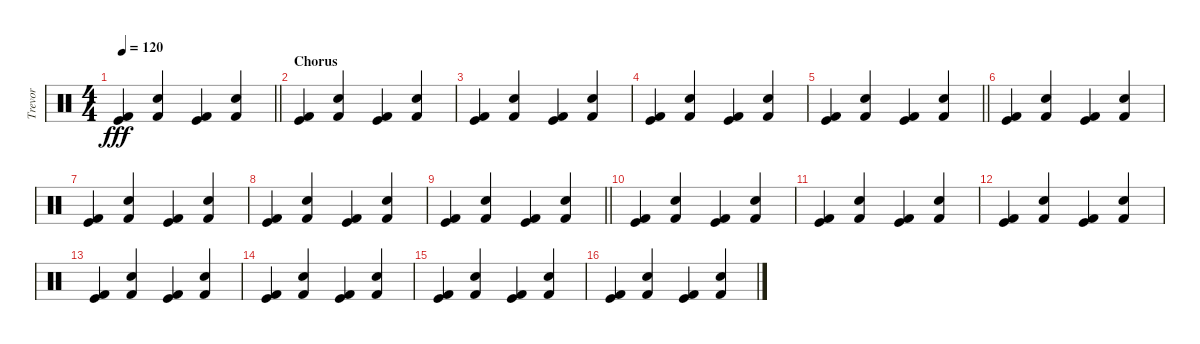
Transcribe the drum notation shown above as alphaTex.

\track ("Trevor" "Trevor") {instrument percussion}
\staff {score}
\articulation defaults
\ts (4 4)
\tempo 120
\clef neutral
\barLineRight lightlight
\ks c
("Kick (hit)" "Kick (hit) 2").4{dy fff} ("Kick (hit) 2" "Snare (hit) 2").4 ("Kick (hit)" "Kick (hit) 2").4 ("Kick (hit) 2" "Snare (hit) 2").4 |
\section ("" "Chorus")
("Kick (hit)" "Kick (hit) 2").4 ("Kick (hit) 2" "Snare (hit) 2").4 ("Kick (hit)" "Kick (hit) 2").4 ("Kick (hit) 2" "Snare (hit) 2").4 |
("Kick (hit)" "Kick (hit) 2").4 ("Kick (hit) 2" "Snare (hit) 2").4 ("Kick (hit)" "Kick (hit) 2").4 ("Kick (hit) 2" "Snare (hit) 2").4 |
("Kick (hit)" "Kick (hit) 2").4 ("Kick (hit) 2" "Snare (hit) 2").4 ("Kick (hit)" "Kick (hit) 2").4 ("Kick (hit) 2" "Snare (hit) 2").4 |
\barLineRight lightlight
("Kick (hit)" "Kick (hit) 2").4 ("Kick (hit) 2" "Snare (hit) 2").4 ("Kick (hit)" "Kick (hit) 2").4 ("Kick (hit) 2" "Snare (hit) 2").4 |
\section ("" "")
("Kick (hit)" "Kick (hit) 2").4 ("Kick (hit) 2" "Snare (hit) 2").4 ("Kick (hit)" "Kick (hit) 2").4 ("Kick (hit) 2" "Snare (hit) 2").4 |
("Kick (hit)" "Kick (hit) 2").4 ("Kick (hit) 2" "Snare (hit) 2").4 ("Kick (hit)" "Kick (hit) 2").4 ("Kick (hit) 2" "Snare (hit) 2").4 |
("Kick (hit)" "Kick (hit) 2").4 ("Kick (hit) 2" "Snare (hit) 2").4 ("Kick (hit)" "Kick (hit) 2").4 ("Kick (hit) 2" "Snare (hit) 2").4 |
\barLineRight lightlight
("Kick (hit)" "Kick (hit) 2").4 ("Kick (hit) 2" "Snare (hit) 2").4 ("Kick (hit)" "Kick (hit) 2").4 ("Kick (hit) 2" "Snare (hit) 2").4 |
\section ("" "")
("Kick (hit)" "Kick (hit) 2").4 ("Kick (hit) 2" "Snare (hit) 2").4 ("Kick (hit)" "Kick (hit) 2").4 ("Kick (hit) 2" "Snare (hit) 2").4 |
("Kick (hit)" "Kick (hit) 2").4 ("Kick (hit) 2" "Snare (hit) 2").4 ("Kick (hit)" "Kick (hit) 2").4 ("Kick (hit) 2" "Snare (hit) 2").4 |
("Kick (hit)" "Kick (hit) 2").4 ("Kick (hit) 2" "Snare (hit) 2").4 ("Kick (hit)" "Kick (hit) 2").4 ("Kick (hit) 2" "Snare (hit) 2").4 |
("Kick (hit)" "Kick (hit) 2").4 ("Kick (hit) 2" "Snare (hit) 2").4 ("Kick (hit)" "Kick (hit) 2").4 ("Kick (hit) 2" "Snare (hit) 2").4 |
("Kick (hit)" "Kick (hit) 2").4 ("Kick (hit) 2" "Snare (hit) 2").4 ("Kick (hit)" "Kick (hit) 2").4 ("Kick (hit) 2" "Snare (hit) 2").4 |
("Kick (hit)" "Kick (hit) 2").4 ("Kick (hit) 2" "Snare (hit) 2").4 ("Kick (hit)" "Kick (hit) 2").4 ("Kick (hit) 2" "Snare (hit) 2").4 |
("Kick (hit)" "Kick (hit) 2").4 ("Kick (hit) 2" "Snare (hit) 2").4 ("Kick (hit)" "Kick (hit) 2").4 ("Kick (hit) 2" "Snare (hit) 2").4
